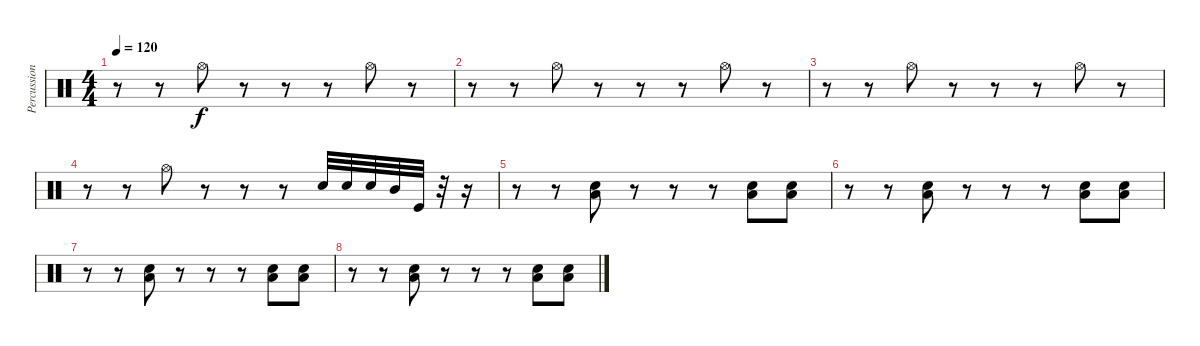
\track ("Percussion" "Percussion") {instrument percussion}
\staff {score}
\articulation defaults
\ts (4 4)
\tempo 120
\clef neutral
\ks c
r.8{dy f} r.8 "Hi-Hat (open)".8 r.8 r.8 r.8 "Hi-Hat (open)".8 r.8 |
r.8 r.8 "Hi-Hat (open)".8 r.8 r.8 r.8 "Hi-Hat (open)".8 r.8 |
r.8 r.8 "Hi-Hat (open)".8 r.8 r.8 r.8 "Hi-Hat (open)".8 r.8 |
r.8 r.8 "Hi-Hat (open)".8 r.8 r.8 r.8 "Snare (hit) 2".32 "Snare (hit) 2".32 "Snare (hit) 2".32 "Mid Tom (hit)".32 "Kick (hit)".32 r.32 r.16 |
r.8 r.8 ("Snare (hit) 2" "Low Tom (hit)").8 r.8 r.8 r.8 ("Snare (hit) 2" "Low Tom (hit)").8 ("Snare (hit) 2" "Low Tom (hit)").8 |
r.8 r.8 ("Snare (hit) 2" "Low Tom (hit)").8 r.8 r.8 r.8 ("Snare (hit) 2" "Low Tom (hit)").8 ("Snare (hit) 2" "Low Tom (hit)").8 |
r.8 r.8 ("Snare (hit) 2" "Low Tom (hit)").8 r.8 r.8 r.8 ("Snare (hit) 2" "Low Tom (hit)").8 ("Snare (hit) 2" "Low Tom (hit)").8 |
r.8 r.8 ("Snare (hit) 2" "Low Tom (hit)").8 r.8 r.8 r.8 ("Snare (hit) 2" "Low Tom (hit)").8 ("Snare (hit) 2" "Low Tom (hit)").8
